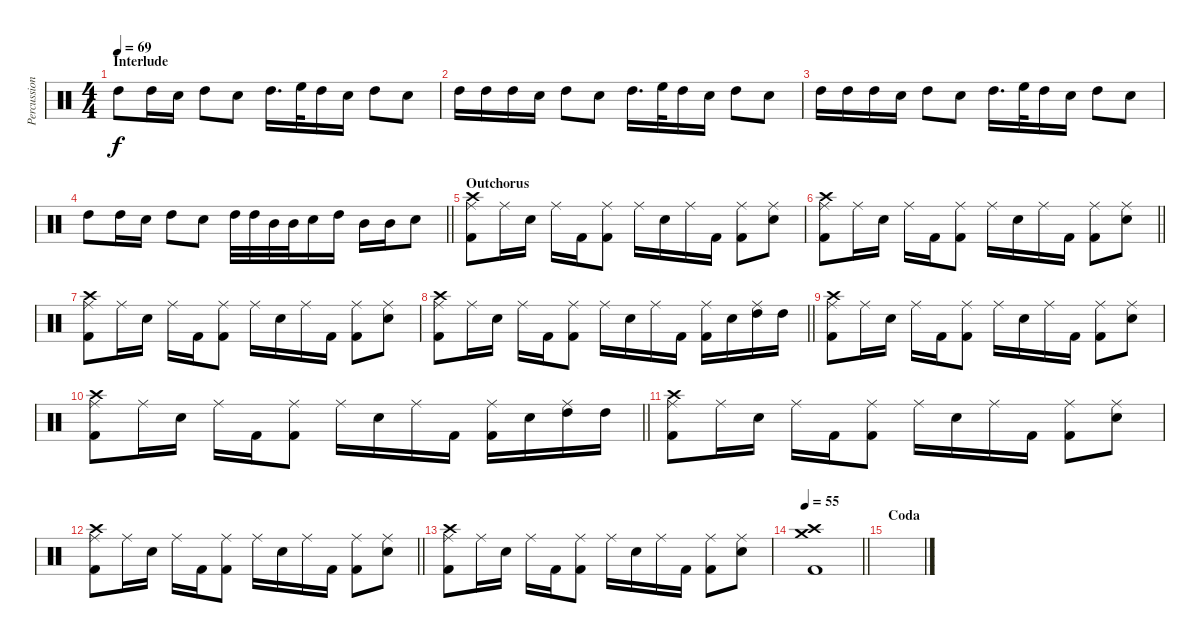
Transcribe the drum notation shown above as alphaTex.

\track ("Percussion" "Percussion") {instrument percussion}
\staff {score}
\articulation defaults
\ts (4 4)
\section ("" "Interlude")
\tempo 69
\clef neutral
\ks c "High Tom (hit)".8{dy f} "High Tom (hit)".16 "Electric Snare (hit)".16 "High Tom (hit)".8 "Electric Snare (hit)".8 "High Tom (hit)".16{d} "High Floor Tom (hit)".32 "High Tom (hit)".16 "Electric Snare (hit)".16 "High Tom (hit)".8 "Electric Snare (hit)".8
|
"High Tom (hit)".16 "High Tom (hit)".16 "High Tom (hit)".16 "Electric Snare (hit)".16 "High Tom (hit)".8 "Electric Snare (hit)".8 "High Tom (hit)".16{d} "High Floor Tom (hit)".32 "High Tom (hit)".16 "Electric Snare (hit)".16 "High Tom (hit)".8 "Electric Snare (hit)".8 |
"High Tom (hit)".16 "High Tom (hit)".16 "High Tom (hit)".16 "Electric Snare (hit)".16 "High Tom (hit)".8 "Electric Snare (hit)".8 "High Tom (hit)".16{d} "High Floor Tom (hit)".32 "High Tom (hit)".16 "Electric Snare (hit)".16 "High Tom (hit)".8 "Electric Snare (hit)".8 |
\barLineRight lightlight "High Tom (hit)".8 "High Tom (hit)".16 "Electric Snare (hit)".16 "High Tom (hit)".8 "Electric Snare (hit)".8 "High Tom (hit)".32 "High Tom (hit)".32 "Mid Tom (hit)".32 "Mid Tom (hit)".32 "Electric Snare (hit)".16 "High Tom (hit)".16 "Mid Tom (hit)".16 "Mid Tom (hit)".16 "Electric Snare (hit)".8
|
\section ("" "Outchorus")
("Ride (middle)" "Crash high (hit)" "Kick (hit) 2").8{volume 13} "Ride (middle)".16 "Electric Snare (hit)".16 "Ride (middle)".16 "Kick (hit) 2".16 ("Ride (middle)" "Kick (hit) 2").8 "Ride (middle)".16 "Electric Snare (hit)".16 "Ride (middle)".16 "Kick (hit) 2".16 ("Ride (middle)" "Kick (hit) 2").8 ("Ride (middle)" "Electric Snare (hit)").8 |
\barLineRight lightlight
("Ride (middle)" "Crash high (hit)" "Kick (hit) 2").8 "Ride (middle)".16 "Electric Snare (hit)".16 "Ride (middle)".16 "Kick (hit) 2".16 ("Ride (middle)" "Kick (hit) 2").8 "Ride (middle)".16 "Electric Snare (hit)".16 "Ride (middle)".16 "Kick (hit) 2".16 ("Ride (middle)" "Kick (hit) 2").8 ("Ride (middle)" "Electric Snare (hit)").8 |
("Ride (middle)" "Crash high (hit)" "Kick (hit) 2").8 "Ride (middle)".16 "Electric Snare (hit)".16 "Ride (middle)".16 "Kick (hit) 2".16 ("Ride (middle)" "Kick (hit) 2").8 "Ride (middle)".16 "Electric Snare (hit)".16 "Ride (middle)".16 "Kick (hit) 2".16 ("Ride (middle)" "Kick (hit) 2").8 ("Ride (middle)" "Electric Snare (hit)").8 |
\barLineRight lightlight
("Ride (middle)" "Crash high (hit)" "Kick (hit) 2").8 "Ride (middle)".16 "Electric Snare (hit)".16 "Ride (middle)".16 "Kick (hit) 2".16 ("Ride (middle)" "Kick (hit) 2").8 "Ride (middle)".16 "Electric Snare (hit)".16 "Ride (middle)".16 "Kick (hit) 2".16 ("Ride (middle)" "Kick (hit) 2").16 "Electric Snare (hit)".16 ("Ride (middle)" "High Tom (hit)").16 "High Tom (hit)".16 |
("Ride (middle)" "Crash high (hit)" "Kick (hit) 2").8 "Ride (middle)".16 "Electric Snare (hit)".16 "Ride (middle)".16 "Kick (hit) 2".16 ("Ride (middle)" "Kick (hit) 2").8 "Ride (middle)".16 "Electric Snare (hit)".16 "Ride (middle)".16 "Kick (hit) 2".16 ("Ride (middle)" "Kick (hit) 2").8 ("Ride (middle)" "Electric Snare (hit)").8 |
\barLineRight lightlight
("Ride (middle)" "Crash high (hit)" "Kick (hit) 2").8 "Ride (middle)".16 "Electric Snare (hit)".16 "Ride (middle)".16 "Kick (hit) 2".16 ("Ride (middle)" "Kick (hit) 2").8 "Ride (middle)".16 "Electric Snare (hit)".16 "Ride (middle)".16 "Kick (hit) 2".16 ("Ride (middle)" "Kick (hit) 2").16 "Electric Snare (hit)".16 ("Ride (middle)" "High Tom (hit)").16 "High Tom (hit)".16 |
("Ride (middle)" "Crash high (hit)" "Kick (hit) 2").8 "Ride (middle)".16 "Electric Snare (hit)".16 "Ride (middle)".16 "Kick (hit) 2".16 ("Ride (middle)" "Kick (hit) 2").8 "Ride (middle)".16 "Electric Snare (hit)".16 "Ride (middle)".16 "Kick (hit) 2".16 ("Ride (middle)" "Kick (hit) 2").8 ("Ride (middle)" "Electric Snare (hit)").8 |
\barLineRight lightlight
("Ride (middle)" "Crash high (hit)" "Kick (hit) 2").8 "Ride (middle)".16 "Electric Snare (hit)".16 "Ride (middle)".16 "Kick (hit) 2".16 ("Ride (middle)" "Kick (hit) 2").8 "Ride (middle)".16 "Electric Snare (hit)".16 "Ride (middle)".16 "Kick (hit) 2".16 ("Ride (middle)" "Kick (hit) 2").8 ("Ride (middle)" "Electric Snare (hit)").8 |
("Ride (middle)" "Crash high (hit)" "Kick (hit) 2").8 "Ride (middle)".16 "Electric Snare (hit)".16 "Ride (middle)".16 "Kick (hit) 2".16 ("Ride (middle)" "Kick (hit) 2").8 "Ride (middle)".16 "Electric Snare (hit)".16 "Ride (middle)".16 "Kick (hit) 2".16 ("Ride (middle)" "Kick (hit) 2").8 ("Ride (middle)" "Electric Snare (hit)").8 |
\tempo 55
\barLineRight lightlight
("Crash medium (hit)" "Crash high (hit)" "Kick (hit) 2").1 |
\section ("" "Coda")
